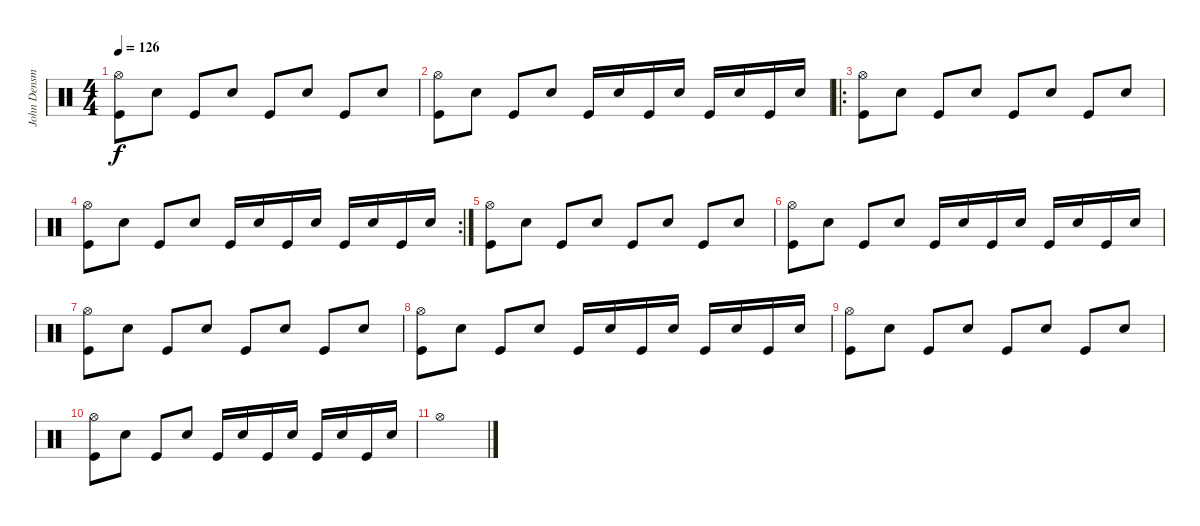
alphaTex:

\track ("John Densmore" "John Densm") {instrument percussion}
\staff {score}
\articulation defaults
\ts (4 4)
\tempo 126
\clef neutral
\ks c
("Kick (hit)" "Hi-Hat (open)").8{dy f} "Snare (hit) 2".8 "Kick (hit)".8 "Snare (hit) 2".8 "Kick (hit)".8 "Snare (hit) 2".8 "Kick (hit)".8 "Snare (hit) 2".8 |
("Kick (hit)" "Hi-Hat (open)").8 "Snare (hit) 2".8 "Kick (hit)".8 "Snare (hit) 2".8 "Kick (hit)".16 "Snare (hit) 2".16 "Kick (hit)".16 "Snare (hit) 2".16 "Kick (hit)".16 "Snare (hit) 2".16 "Kick (hit)".16 "Snare (hit) 2".16 |
\ro
("Kick (hit)" "Hi-Hat (open)").8 "Snare (hit) 2".8 "Kick (hit)".8 "Snare (hit) 2".8 "Kick (hit)".8 "Snare (hit) 2".8 "Kick (hit)".8 "Snare (hit) 2".8 |
\rc 2
("Kick (hit)" "Hi-Hat (open)").8 "Snare (hit) 2".8 "Kick (hit)".8 "Snare (hit) 2".8 "Kick (hit)".16 "Snare (hit) 2".16 "Kick (hit)".16 "Snare (hit) 2".16 "Kick (hit)".16 "Snare (hit) 2".16 "Kick (hit)".16 "Snare (hit) 2".16 |
("Kick (hit)" "Hi-Hat (open)").8 "Snare (hit) 2".8 "Kick (hit)".8 "Snare (hit) 2".8 "Kick (hit)".8 "Snare (hit) 2".8 "Kick (hit)".8 "Snare (hit) 2".8 |
("Kick (hit)" "Hi-Hat (open)").8 "Snare (hit) 2".8 "Kick (hit)".8 "Snare (hit) 2".8 "Kick (hit)".16 "Snare (hit) 2".16 "Kick (hit)".16 "Snare (hit) 2".16 "Kick (hit)".16 "Snare (hit) 2".16 "Kick (hit)".16 "Snare (hit) 2".16 |
("Kick (hit)" "Hi-Hat (open)").8 "Snare (hit) 2".8 "Kick (hit)".8 "Snare (hit) 2".8 "Kick (hit)".8 "Snare (hit) 2".8 "Kick (hit)".8 "Snare (hit) 2".8 |
("Kick (hit)" "Hi-Hat (open)").8 "Snare (hit) 2".8 "Kick (hit)".8 "Snare (hit) 2".8 "Kick (hit)".16 "Snare (hit) 2".16 "Kick (hit)".16 "Snare (hit) 2".16 "Kick (hit)".16 "Snare (hit) 2".16 "Kick (hit)".16 "Snare (hit) 2".16 |
("Kick (hit)" "Hi-Hat (open)").8 "Snare (hit) 2".8 "Kick (hit)".8 "Snare (hit) 2".8 "Kick (hit)".8 "Snare (hit) 2".8 "Kick (hit)".8 "Snare (hit) 2".8 |
("Kick (hit)" "Hi-Hat (open)").8 "Snare (hit) 2".8 "Kick (hit)".8 "Snare (hit) 2".8 "Kick (hit)".16 "Snare (hit) 2".16 "Kick (hit)".16 "Snare (hit) 2".16 "Kick (hit)".16 "Snare (hit) 2".16 "Kick (hit)".16 "Snare (hit) 2".16 |
"Hi-Hat (open)".1
